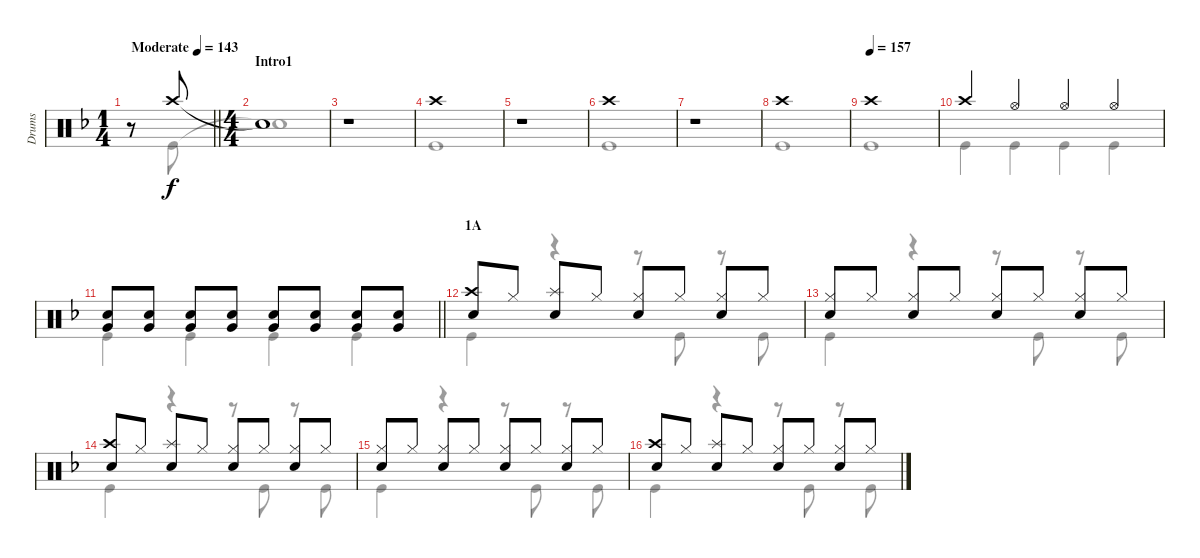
\track ("Drums" "Drums") {instrument percussion}
\staff {score}
\articulation defaults
\voice
\ts (1 4)
\tempo (143 "Moderate")
\clef neutral
\barLineRight lightlight
\ks f
r.8{dy f} "Crash high (hit)".8 |
\ts (4 4)
\section ("" "Intro1")
"Snare (hit)"{t}.1 |
r.1 |
"Crash high (hit)".1 |
r.1 |
"Crash high (hit)".1 |
r.1 |
"Crash high (hit)".1 |
\tempo (157)
"Crash high (hit)".1 |
"Crash high (hit)".4 "Hi-Hat (open)".4 "Hi-Hat (open)".4 "Hi-Hat (open)".4 |
\barLineRight lightlight
("Snare (hit) 2" "Very Low Tom (hit)").8 ("Snare (hit) 2" "Very Low Tom (hit)").8 ("Snare (hit) 2" "Very Low Tom (hit)").8 ("Snare (hit) 2" "Very Low Tom (hit)").8 ("Snare (hit) 2" "Very Low Tom (hit)").8 ("Snare (hit) 2" "Very Low Tom (hit)").8 ("Snare (hit) 2" "Very Low Tom (hit)").8 ("Snare (hit) 2" "Very Low Tom (hit)").8 |
\section ("" "1A")
("Crash high (hit)" "Snare (hit) 2").8 "Hi-Hat (closed)".8 ("Splash (hit)" "Snare (hit) 2").8 "Hi-Hat (closed)".8 ("Hi-Hat (closed)" "Snare (hit) 2").8 "Hi-Hat (closed)".8 ("Hi-Hat (closed)" "Snare (hit) 2").8 "Hi-Hat (closed)".8 |
("Hi-Hat (closed)" "Snare (hit) 2").8 "Hi-Hat (closed)".8 ("Hi-Hat (closed)" "Snare (hit) 2").8 "Hi-Hat (closed)".8 ("Hi-Hat (closed)" "Snare (hit) 2").8 "Hi-Hat (closed)".8 ("Hi-Hat (closed)" "Snare (hit) 2").8 "Hi-Hat (closed)".8 |
("Crash high (hit)" "Snare (hit) 2").8 "Hi-Hat (closed)".8 ("Splash (hit)" "Snare (hit) 2").8 "Hi-Hat (closed)".8 ("Hi-Hat (closed)" "Snare (hit) 2").8 "Hi-Hat (closed)".8 ("Hi-Hat (closed)" "Snare (hit) 2").8 "Hi-Hat (closed)".8 |
("Hi-Hat (closed)" "Snare (hit) 2").8 "Hi-Hat (closed)".8 ("Hi-Hat (closed)" "Snare (hit) 2").8 "Hi-Hat (closed)".8 ("Hi-Hat (closed)" "Snare (hit) 2").8 "Hi-Hat (closed)".8 ("Hi-Hat (closed)" "Snare (hit) 2").8 "Hi-Hat (closed)".8 |
("Crash high (hit)" "Snare (hit) 2").8 "Hi-Hat (closed)".8 ("Splash (hit)" "Snare (hit) 2").8 "Hi-Hat (closed)".8 ("Hi-Hat (closed)" "Snare (hit) 2").8 "Hi-Hat (closed)".8 ("Hi-Hat (closed)" "Snare (hit) 2").8 "Hi-Hat (closed)".8
\voice
\clef neutral
\ottava regular
\simile none
\barLineRight lightlight
\ks f
r.8{dy f} "Kick (hit)".8 |
"Snare (hit)"{t}.1 |
r.1 |
"Kick (hit)".1 |
|
"Kick (hit)".1 |
r.1 |
"Kick (hit)".1 |
"Kick (hit)".1 |
"Kick (hit)".4 "Kick (hit)".4 "Kick (hit)".4 "Kick (hit)".4 |
\barLineRight lightlight "Kick (hit)".4 "Kick (hit)".4 "Kick (hit)".4 "Kick (hit)".4
|
"Kick (hit)".4 r.4 r.8 "Kick (hit)".8 r.8 "Kick (hit)".8 |
"Kick (hit)".4 r.4 r.8 "Kick (hit)".8 r.8 "Kick (hit)".8 |
"Kick (hit)".4 r.4 r.8 "Kick (hit)".8 r.8 "Kick (hit)".8 |
"Kick (hit)".4 r.4 r.8 "Kick (hit)".8 r.8 "Kick (hit)".8 |
"Kick (hit)".4 r.4 r.8 "Kick (hit)".8 r.8 "Kick (hit)".8
